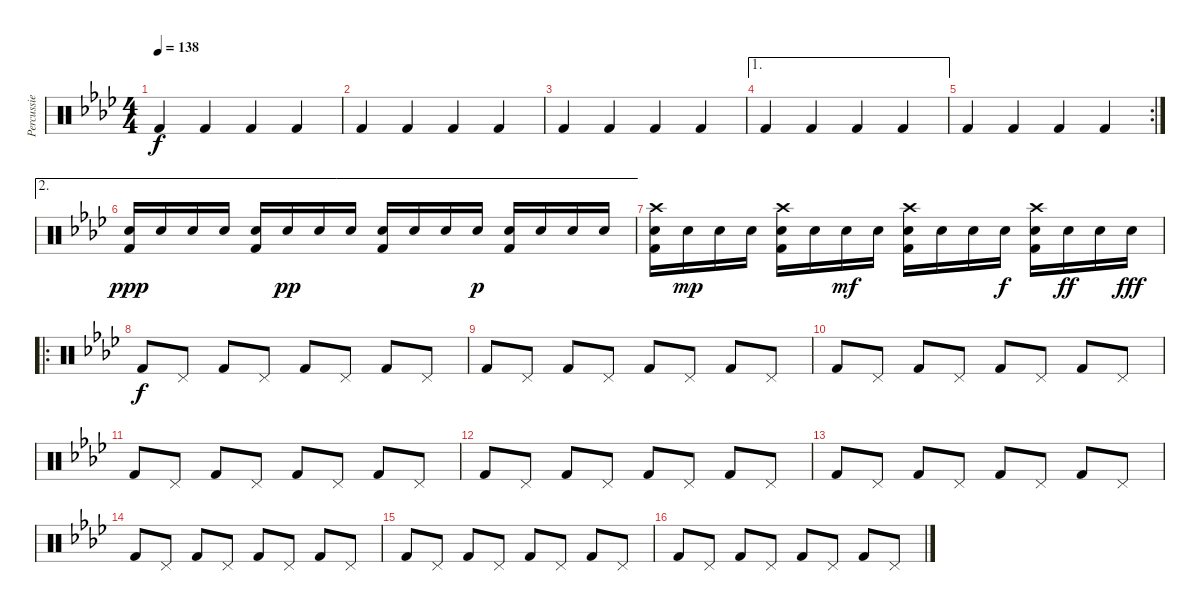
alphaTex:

\track ("Percussie" "Percussie") {instrument percussion}
\staff {score}
\articulation defaults
\ts (4 4)
\tempo 138
\clef neutral
\ks ab "Kick (hit) 2".4{dy f} "Kick (hit) 2".4 "Kick (hit) 2".4 "Kick (hit) 2".4
|
"Kick (hit) 2".4 "Kick (hit) 2".4 "Kick (hit) 2".4 "Kick (hit) 2".4 |
"Kick (hit) 2".4 "Kick (hit) 2".4 "Kick (hit) 2".4 "Kick (hit) 2".4 |
\ae 1 "Kick (hit) 2".4 "Kick (hit) 2".4 "Kick (hit) 2".4 "Kick (hit) 2".4
|
\rc 2 "Kick (hit) 2".4 "Kick (hit) 2".4 "Kick (hit) 2".4 "Kick (hit) 2".4
|
\ae 2
("Snare (hit) 2" "Kick (hit) 2").16{dy ppp volume 2} "Snare (hit) 2".16{volume 13} "Snare (hit) 2".16 "Snare (hit) 2".16 ("Snare (hit) 2" "Kick (hit) 2").16 "Snare (hit) 2".16{dy pp} "Snare (hit) 2".16 "Snare (hit) 2".16 ("Snare (hit) 2" "Kick (hit) 2").16 "Snare (hit) 2".16 "Snare (hit) 2".16 "Snare (hit) 2".16{dy p} ("Snare (hit) 2" "Kick (hit) 2").16 "Snare (hit) 2".16 "Snare (hit) 2".16 "Snare (hit) 2".16 |
("Snare (hit) 2" "Kick (hit) 2" "Crash high (hit)").16 "Snare (hit) 2".16{dy mp} "Snare (hit) 2".16 "Snare (hit) 2".16 ("Snare (hit) 2" "Kick (hit) 2" "Crash high (hit)").16 "Snare (hit) 2".16 "Snare (hit) 2".16{dy mf} "Snare (hit) 2".16 ("Snare (hit) 2" "Kick (hit) 2" "Crash high (hit)").16 "Snare (hit) 2".16 "Snare (hit) 2".16 "Snare (hit) 2".16{dy f} ("Snare (hit) 2" "Kick (hit) 2" "Crash high (hit)").16 "Snare (hit) 2".16{dy ff} "Snare (hit) 2".16 "Snare (hit) 2".16{dy fff} |
\ro "Kick (hit) 2".8{dy f} "Pedal Hi-Hat (hit)".8 "Kick (hit) 2".8 "Pedal Hi-Hat (hit)".8 "Kick (hit) 2".8 "Pedal Hi-Hat (hit)".8 "Kick (hit) 2".8 "Pedal Hi-Hat (hit)".8
|
"Kick (hit) 2".8 "Pedal Hi-Hat (hit)".8 "Kick (hit) 2".8 "Pedal Hi-Hat (hit)".8 "Kick (hit) 2".8 "Pedal Hi-Hat (hit)".8 "Kick (hit) 2".8 "Pedal Hi-Hat (hit)".8 |
"Kick (hit) 2".8 "Pedal Hi-Hat (hit)".8 "Kick (hit) 2".8 "Pedal Hi-Hat (hit)".8 "Kick (hit) 2".8 "Pedal Hi-Hat (hit)".8 "Kick (hit) 2".8 "Pedal Hi-Hat (hit)".8 |
"Kick (hit) 2".8 "Pedal Hi-Hat (hit)".8 "Kick (hit) 2".8 "Pedal Hi-Hat (hit)".8 "Kick (hit) 2".8 "Pedal Hi-Hat (hit)".8 "Kick (hit) 2".8 "Pedal Hi-Hat (hit)".8 |
"Kick (hit) 2".8 "Pedal Hi-Hat (hit)".8 "Kick (hit) 2".8 "Pedal Hi-Hat (hit)".8 "Kick (hit) 2".8 "Pedal Hi-Hat (hit)".8 "Kick (hit) 2".8 "Pedal Hi-Hat (hit)".8 |
"Kick (hit) 2".8 "Pedal Hi-Hat (hit)".8 "Kick (hit) 2".8 "Pedal Hi-Hat (hit)".8 "Kick (hit) 2".8 "Pedal Hi-Hat (hit)".8 "Kick (hit) 2".8 "Pedal Hi-Hat (hit)".8 |
"Kick (hit) 2".8 "Pedal Hi-Hat (hit)".8 "Kick (hit) 2".8 "Pedal Hi-Hat (hit)".8 "Kick (hit) 2".8 "Pedal Hi-Hat (hit)".8 "Kick (hit) 2".8 "Pedal Hi-Hat (hit)".8 |
"Kick (hit) 2".8 "Pedal Hi-Hat (hit)".8 "Kick (hit) 2".8 "Pedal Hi-Hat (hit)".8 "Kick (hit) 2".8 "Pedal Hi-Hat (hit)".8 "Kick (hit) 2".8 "Pedal Hi-Hat (hit)".8 |
"Kick (hit) 2".8 "Pedal Hi-Hat (hit)".8 "Kick (hit) 2".8 "Pedal Hi-Hat (hit)".8 "Kick (hit) 2".8 "Pedal Hi-Hat (hit)".8 "Kick (hit) 2".8 "Pedal Hi-Hat (hit)".8
